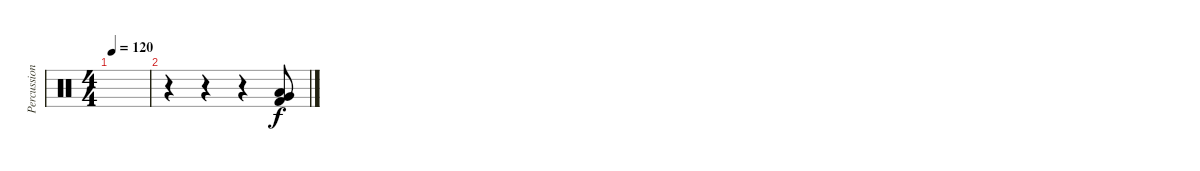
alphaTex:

\track ("Percussions" "Percussion") {instrument percussion}
\staff {score}
\articulation defaults
\ts (4 4)
\tempo 120
\clef neutral
\ks c
|
r.4 r.4 r.4 ("Kick (hit) 2" "Low Floor Tom (hit)" "Very Low Tom (hit)").8
